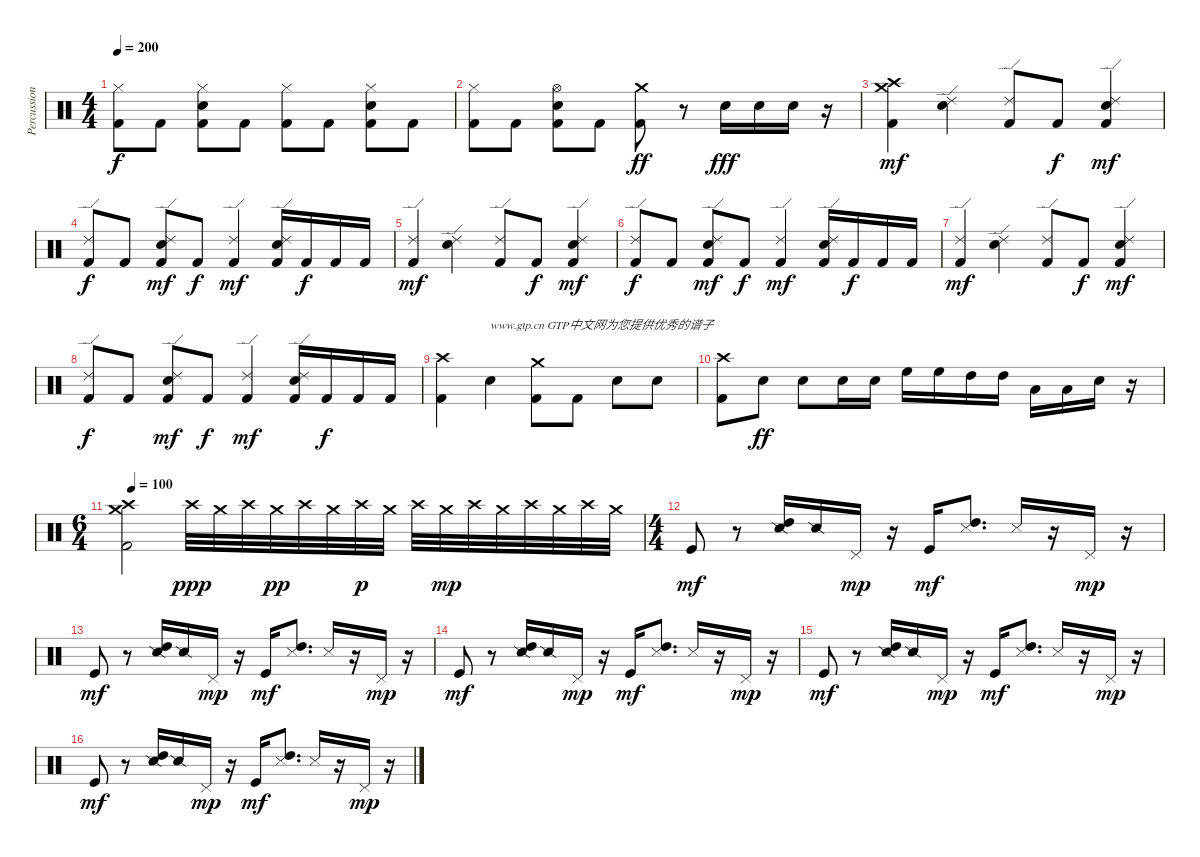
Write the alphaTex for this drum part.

\track ("Percussions 1" "Percussion") {instrument percussion}
\staff {score}
\articulation defaults
\ts (4 4)
\tempo 200
\clef neutral
\ks c
("Hi-Hat (closed)" "Kick (hit) 2").8{dy f} "Kick (hit) 2".8 ("Hi-Hat (closed)" "Snare (hit) 2" "Kick (hit) 2").8 "Kick (hit) 2".8 ("Hi-Hat (closed)" "Kick (hit) 2").8 "Kick (hit) 2".8 ("Hi-Hat (closed)" "Snare (hit) 2" "Kick (hit) 2").8 "Kick (hit) 2".8 |
("Hi-Hat (closed)" "Kick (hit) 2").8 "Kick (hit) 2".8 ("Hi-Hat (open)" "Snare (hit) 2" "Kick (hit) 2").8 "Kick (hit) 2".8 ("Crash medium (hit)" "Kick (hit) 2").8{dy ff} r.8 "Snare (hit) 2".16{dy fff} "Snare (hit) 2".16 "Snare (hit) 2".16 r.16 |
("Crash high (hit)" "Crash medium (hit)" "Kick (hit) 2").4{dy mf} ("Ride (edge) 2" "Snare (hit) 2").4 ("Ride (edge) 2" "Kick (hit) 2").8 "Kick (hit) 2".8{dy f} ("Ride (edge) 2" "Snare (hit) 2" "Kick (hit) 2").4{dy mf} |
("Ride (edge) 2" "Kick (hit) 2").8{dy f} "Kick (hit) 2".8 ("Ride (edge) 2" "Snare (hit) 2" "Kick (hit) 2").8{dy mf} "Kick (hit) 2".8{dy f} ("Ride (edge) 2" "Kick (hit) 2").4{dy mf} ("Ride (edge) 2" "Snare (hit) 2" "Kick (hit) 2").16 "Kick (hit) 2".16{dy f} "Kick (hit) 2".16 "Kick (hit) 2".16 |
("Ride (edge) 2" "Kick (hit) 2").4{dy mf} ("Ride (edge) 2" "Snare (hit) 2").4 ("Ride (edge) 2" "Kick (hit) 2").8 "Kick (hit) 2".8{dy f} ("Ride (edge) 2" "Snare (hit) 2" "Kick (hit) 2").4{dy mf} |
("Ride (edge) 2" "Kick (hit) 2").8{dy f} "Kick (hit) 2".8 ("Ride (edge) 2" "Snare (hit) 2" "Kick (hit) 2").8{dy mf} "Kick (hit) 2".8{dy f} ("Ride (edge) 2" "Kick (hit) 2").4{dy mf} ("Ride (edge) 2" "Snare (hit) 2" "Kick (hit) 2").16 "Kick (hit) 2".16{dy f} "Kick (hit) 2".16 "Kick (hit) 2".16 |
("Ride (edge) 2" "Kick (hit) 2").4{dy mf} ("Ride (edge) 2" "Snare (hit) 2").4 ("Ride (edge) 2" "Kick (hit) 2").8 "Kick (hit) 2".8{dy f} ("Ride (edge) 2" "Snare (hit) 2" "Kick (hit) 2").4{dy mf} |
("Ride (edge) 2" "Kick (hit) 2").8{dy f} "Kick (hit) 2".8 ("Ride (edge) 2" "Snare (hit) 2" "Kick (hit) 2").8{dy mf} "Kick (hit) 2".8{dy f} ("Ride (edge) 2" "Kick (hit) 2").4{dy mf} ("Ride (edge) 2" "Snare (hit) 2" "Kick (hit) 2").16 "Kick (hit) 2".16{dy f} "Kick (hit) 2".16 "Kick (hit) 2".16 |
("Crash high (hit)" "Kick (hit) 2").4 "Snare (hit) 2".4{txt "www.gtp.cn GTP中文网为您提供优秀的谱子"} ("Crash medium (hit)" "Kick (hit) 2").8 "Kick (hit) 2".8 "Snare (hit) 2".8 "Snare (hit) 2".8 |
("Crash high (hit)" "Kick (hit) 2").8 "Snare (hit) 2".8{dy ff} "Snare (hit) 2".8 "Snare (hit) 2".16 "Snare (hit) 2".16 "High Floor Tom (hit)".16 "High Floor Tom (hit)".16 "High Tom (hit)".16 "High Tom (hit)".16 "Low Tom (hit)".16 "Low Tom (hit)".16 "Snare (hit) 2".16 r.16 |
\ts (6 4)
\tempo (100 0.020833333333333332)
("Crash high (hit)" "Crash medium (hit)" "Kick (hit) 2").2 "Crash high (hit)".32{dy ppp} "Crash medium (hit)".32 "Crash high (hit)".32 "Crash medium (hit)".32{dy pp} "Crash high (hit)".32 "Crash medium (hit)".32 "Crash high (hit)".32{dy p} "Crash medium (hit)".32 "Crash high (hit)".32 "Crash medium (hit)".32{dy mp} "Crash high (hit)".32 "Crash medium (hit)".32 "Crash high (hit)".32 "Crash medium (hit)".32 "Crash high (hit)".32 "Crash medium (hit)".32 |
\ts (4 4)
"Kick (hit)".8{dy mf} r.8 ("High Tom (hit)" "Snare (side stick) 2").16 "Snare (side stick) 2".16 "Pedal Hi-Hat (hit)".16{dy mp} r.16 "Kick (hit)".16{dy mf} ("High Tom (hit)" "Snare (side stick) 3").8{d} "Snare (side stick) 3".16 r.16 "Pedal Hi-Hat (hit)".16{dy mp} r.16 |
"Kick (hit)".8{dy mf} r.8 ("High Tom (hit)" "Snare (side stick) 2").16 "Snare (side stick) 2".16 "Pedal Hi-Hat (hit)".16{dy mp} r.16 "Kick (hit)".16{dy mf} ("High Tom (hit)" "Snare (side stick) 3").8{d} "Snare (side stick) 3".16 r.16 "Pedal Hi-Hat (hit)".16{dy mp} r.16 |
"Kick (hit)".8{dy mf} r.8 ("High Tom (hit)" "Snare (side stick) 2").16 "Snare (side stick) 2".16 "Pedal Hi-Hat (hit)".16{dy mp} r.16 "Kick (hit)".16{dy mf} ("High Tom (hit)" "Snare (side stick) 3").8{d} "Snare (side stick) 3".16 r.16 "Pedal Hi-Hat (hit)".16{dy mp} r.16 |
"Kick (hit)".8{dy mf} r.8 ("High Tom (hit)" "Snare (side stick) 2").16 "Snare (side stick) 2".16 "Pedal Hi-Hat (hit)".16{dy mp} r.16 "Kick (hit)".16{dy mf} ("High Tom (hit)" "Snare (side stick) 3").8{d} "Snare (side stick) 3".16 r.16 "Pedal Hi-Hat (hit)".16{dy mp} r.16 |
"Kick (hit)".8{dy mf} r.8 ("High Tom (hit)" "Snare (side stick) 2").16 "Snare (side stick) 2".16 "Pedal Hi-Hat (hit)".16{dy mp} r.16 "Kick (hit)".16{dy mf} ("High Tom (hit)" "Snare (side stick) 3").8{d} "Snare (side stick) 3".16 r.16 "Pedal Hi-Hat (hit)".16{dy mp} r.16
